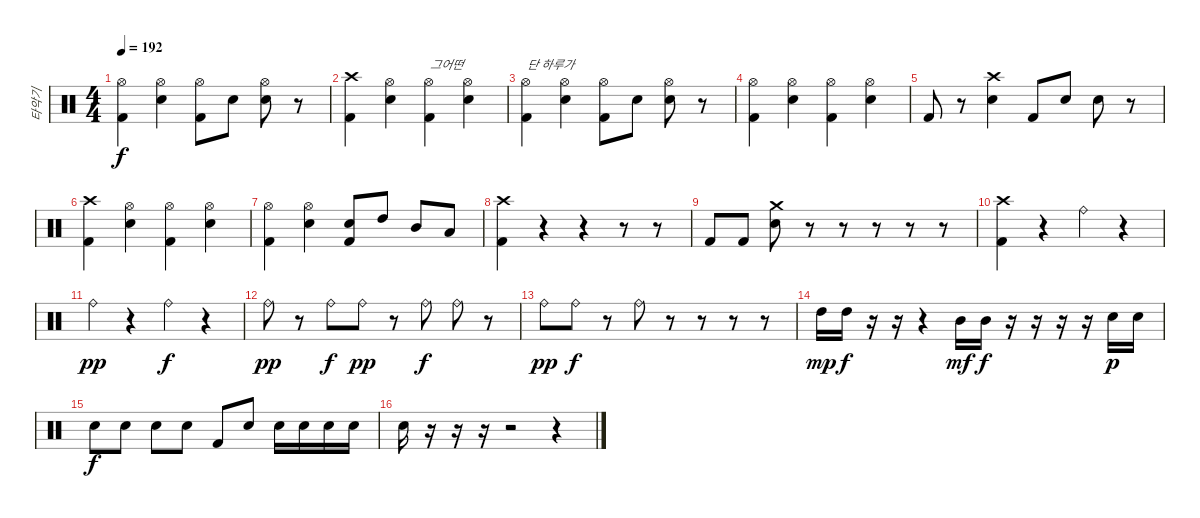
\track ("타악기" "타악기") {instrument percussion}
\staff {score}
\articulation defaults
\ts (4 4)
\tempo 192
\clef neutral
\ks c
("Hi-Hat (open)" "Kick (hit) 2").4{dy f} ("Hi-Hat (open)" "Snare (hit) 2").4 ("Hi-Hat (open)" "Kick (hit) 2").8 "Snare (hit) 2".8 ("Hi-Hat (open)" "Snare (hit) 2").8 r.8 |
("Crash high (hit)" "Kick (hit) 2").4 ("Hi-Hat (open)" "Snare (hit) 2").4 ("Hi-Hat (open)" "Kick (hit) 2").4{txt "그어떤"} ("Hi-Hat (open)" "Snare (hit) 2").4 |
("Hi-Hat (open)" "Kick (hit) 2").4{txt "단 하루가"} ("Hi-Hat (open)" "Snare (hit) 2").4 ("Hi-Hat (open)" "Kick (hit) 2").8 "Snare (hit) 2".8 ("Hi-Hat (open)" "Snare (hit) 2").8 r.8 |
("Hi-Hat (open)" "Kick (hit) 2").4 ("Hi-Hat (open)" "Snare (hit) 2").4 ("Hi-Hat (open)" "Kick (hit) 2").4 ("Hi-Hat (open)" "Snare (hit) 2").4 |
"Kick (hit) 2".8 r.8 ("Crash high (hit)" "Snare (hit) 2").4 "Kick (hit) 2".8 "Snare (hit) 2".8 "Snare (hit) 2".8 r.8 |
("Crash high (hit)" "Kick (hit) 2").4 ("Hi-Hat (open)" "Snare (hit) 2").4 ("Hi-Hat (open)" "Kick (hit) 2").4 ("Hi-Hat (open)" "Snare (hit) 2").4 |
("Hi-Hat (open)" "Kick (hit) 2").4 ("Hi-Hat (open)" "Snare (hit) 2").4 ("Snare (hit) 2" "Kick (hit) 2").8 "High Tom (hit)".8 "Mid Tom (hit)".8 "Low Tom (hit)".8 |
("Crash high (hit)" "Kick (hit) 2").4 r.4 r.4 r.8 r.8 |
"Kick (hit) 2".8 "Kick (hit) 2".8 ("Crash medium (hit)" "Snare (hit) 2").8 r.8 r.8 r.8 r.8 r.8 |
("Crash high (hit)" "Kick (hit) 2").4 r.4 "Ride (bell)".4 r.4 |
"Ride (bell)".4{dy pp} r.4 "Ride (bell)".4{dy f} r.4 |
"Ride (bell)".8{dy pp} r.8 "Ride (bell)".8{dy f} "Ride (bell)".8{dy pp} r.8 "Ride (bell)".8{dy f} "Ride (bell)".8 r.8 |
"Ride (bell)".8{dy pp} "Ride (bell)".8{dy f} r.8 "Ride (bell)".8 r.8 r.8 r.8 r.8 |
"High Tom (hit)".16{dy mp} "High Tom (hit)".16{dy f} r.16 r.16 r.4 "Mid Tom (hit)".16{dy mf} "Mid Tom (hit)".16{dy f} r.16 r.16 r.16 r.16 "Snare (hit) 2".16{dy p} "Snare (hit) 2".16 |
"Snare (hit) 2".8{dy f} "Snare (hit) 2".8 "Snare (hit) 2".8 "Snare (hit) 2".8 "Kick (hit) 2".8 "Snare (hit) 2".8 "Snare (hit) 2".16 "Snare (hit) 2".16 "Snare (hit) 2".16 "Snare (hit) 2".16 |
"Snare (hit) 2".16 r.16 r.16 r.16 r.2 r.4
